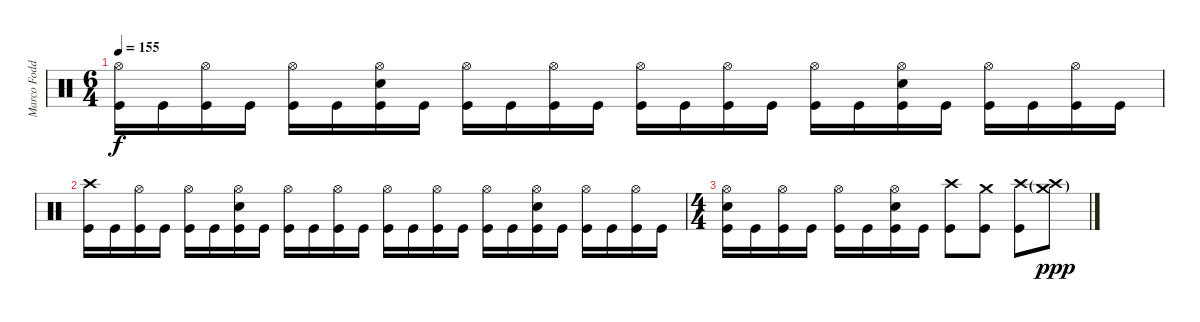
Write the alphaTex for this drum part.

\track ("Marco Foddis" "Marco Fodd") {instrument percussion}
\staff {score}
\articulation defaults
\ts (6 4)
\tempo 155
\clef neutral
\ks c
("Hi-Hat (open)" "Kick (hit)").16{dy f} "Kick (hit)".16 ("Hi-Hat (open)" "Kick (hit)").16 "Kick (hit)".16 ("Hi-Hat (open)" "Kick (hit)").16 "Kick (hit)".16 ("Hi-Hat (open)" "Snare (hit) 2" "Kick (hit)").16 "Kick (hit)".16 ("Hi-Hat (open)" "Kick (hit)").16 "Kick (hit)".16 ("Hi-Hat (open)" "Kick (hit)").16 "Kick (hit)".16 ("Hi-Hat (open)" "Kick (hit)").16 "Kick (hit)".16 ("Hi-Hat (open)" "Kick (hit)").16 "Kick (hit)".16 ("Hi-Hat (open)" "Kick (hit)").16 "Kick (hit)".16 ("Hi-Hat (open)" "Snare (hit) 2" "Kick (hit)").16 "Kick (hit)".16 ("Hi-Hat (open)" "Kick (hit)").16 "Kick (hit)".16 ("Hi-Hat (open)" "Kick (hit)").16 "Kick (hit)".16 |
("Crash high (hit)" "Kick (hit)").16 "Kick (hit)".16 ("Hi-Hat (open)" "Kick (hit)").16 "Kick (hit)".16 ("Hi-Hat (open)" "Kick (hit)").16 "Kick (hit)".16 ("Hi-Hat (open)" "Snare (hit) 2" "Kick (hit)").16 "Kick (hit)".16 ("Hi-Hat (open)" "Kick (hit)").16 "Kick (hit)".16 ("Hi-Hat (open)" "Kick (hit)").16 "Kick (hit)".16 ("Hi-Hat (open)" "Kick (hit)").16 "Kick (hit)".16 ("Hi-Hat (open)" "Kick (hit)").16 "Kick (hit)".16 ("Hi-Hat (open)" "Kick (hit)").16 "Kick (hit)".16 ("Hi-Hat (open)" "Snare (hit) 2" "Kick (hit)").16 "Kick (hit)".16 ("Hi-Hat (open)" "Kick (hit)").16 "Kick (hit)".16 ("Hi-Hat (open)" "Kick (hit)").16 "Kick (hit)".16 |
\ts (4 4)
("Hi-Hat (open)" "Snare (hit) 2" "Kick (hit)").16 "Kick (hit)".16 ("Hi-Hat (open)" "Kick (hit)").16 "Kick (hit)".16 ("Hi-Hat (open)" "Kick (hit)").16 "Kick (hit)".16 ("Hi-Hat (open)" "Snare (hit) 2" "Kick (hit)").16 "Kick (hit)".16 ("Crash high (hit)" "Kick (hit)").8 ("Crash medium (hit)" "Kick (hit)").8 ("Crash high (hit)" "Kick (hit)").8 ("Crash high (hit)"{g} "Crash medium (hit)"{g}).8{dy ppp}
